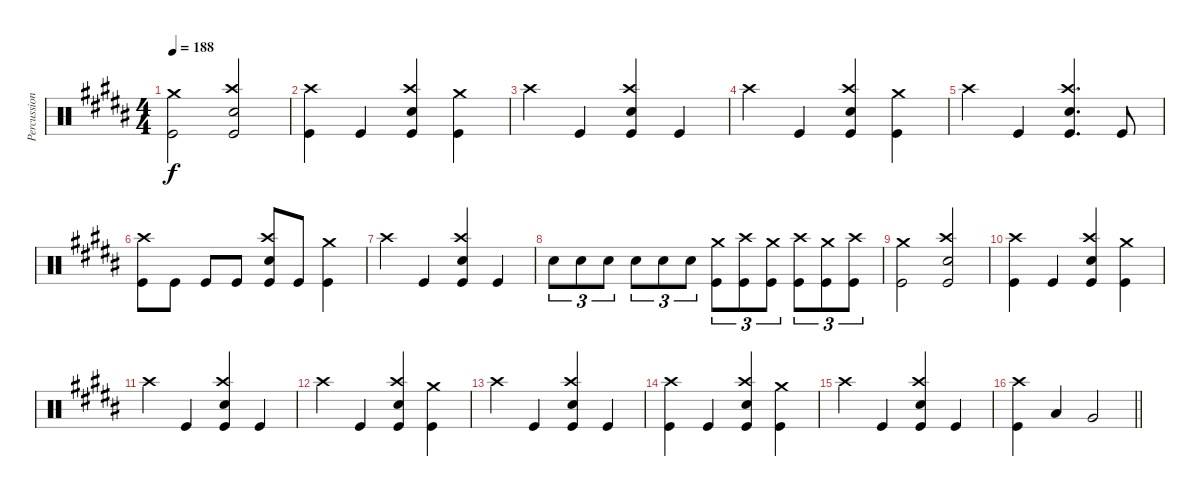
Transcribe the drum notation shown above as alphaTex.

\track ("Percussion" "Percussion") {instrument percussion}
\staff {score}
\articulation defaults
\ts (4 4)
\tempo 188
\clef neutral
\ks b
("Crash medium (hit)" "Kick (hit)").2{dy f} ("Crash high (hit)" "Electric Snare (hit)" "Kick (hit)").2 |
("Crash high (hit)" "Kick (hit)").4 "Kick (hit)".4 ("Crash high (hit)" "Electric Snare (hit)" "Kick (hit)").4 ("Crash medium (hit)" "Kick (hit)").4 |
"Crash high (hit)".4 "Kick (hit)".4 ("Crash high (hit)" "Electric Snare (hit)" "Kick (hit)").4 "Kick (hit)".4 |
"Crash high (hit)".4 "Kick (hit)".4 ("Crash high (hit)" "Electric Snare (hit)" "Kick (hit)").4 ("Crash medium (hit)" "Kick (hit)").4 |
"Crash high (hit)".4 "Kick (hit)".4 ("Crash high (hit)" "Electric Snare (hit)" "Kick (hit)").4{d} "Kick (hit)".8 |
("Crash high (hit)" "Kick (hit)").8 "Kick (hit)".8 "Kick (hit)".8 "Kick (hit)".8 ("Crash high (hit)" "Electric Snare (hit)" "Kick (hit)").8 "Kick (hit)".8 ("Crash medium (hit)" "Kick (hit)").4 |
"Crash high (hit)".4 "Kick (hit)".4 ("Crash high (hit)" "Electric Snare (hit)" "Kick (hit)").4 "Kick (hit)".4 |
"Electric Snare (hit)".8{tu (3 2)} "Electric Snare (hit)".8{tu (3 2)} "Electric Snare (hit)".8{tu (3 2)} "Electric Snare (hit)".8{tu (3 2)} "Electric Snare (hit)".8{tu (3 2)} "Electric Snare (hit)".8{tu (3 2)} ("Crash medium (hit)" "Kick (hit)").8{tu (3 2)} ("Crash high (hit)" "Kick (hit)").8{tu (3 2)} ("Crash medium (hit)" "Kick (hit)").8{tu (3 2)} ("Crash high (hit)" "Kick (hit)").8{tu (3 2)} ("Crash medium (hit)" "Kick (hit)").8{tu (3 2)} ("Crash high (hit)" "Kick (hit)").8{tu (3 2)} |
("Crash medium (hit)" "Kick (hit)").2 ("Crash high (hit)" "Electric Snare (hit)" "Kick (hit)").2 |
("Crash high (hit)" "Kick (hit)").4 "Kick (hit)".4 ("Crash high (hit)" "Electric Snare (hit)" "Kick (hit)").4 ("Crash medium (hit)" "Kick (hit)").4 |
"Crash high (hit)".4 "Kick (hit)".4 ("Crash high (hit)" "Electric Snare (hit)" "Kick (hit)").4 "Kick (hit)".4 |
"Crash high (hit)".4 "Kick (hit)".4 ("Crash high (hit)" "Electric Snare (hit)" "Kick (hit)").4 ("Crash medium (hit)" "Kick (hit)").4 |
"Crash high (hit)".4 "Kick (hit)".4 ("Crash high (hit)" "Electric Snare (hit)" "Kick (hit)").4 "Kick (hit)".4 |
("Crash high (hit)" "Kick (hit)").4 "Kick (hit)".4 ("Crash high (hit)" "Electric Snare (hit)" "Kick (hit)").4 ("Crash medium (hit)" "Kick (hit)").4 |
"Crash high (hit)".4 "Kick (hit)".4 ("Crash high (hit)" "Electric Snare (hit)" "Kick (hit)").4 "Kick (hit)".4 |
\barLineRight lightlight
("Crash high (hit)" "Kick (hit)").4 "Low Tom (hit)".4 "Very Low Tom (hit)".2
